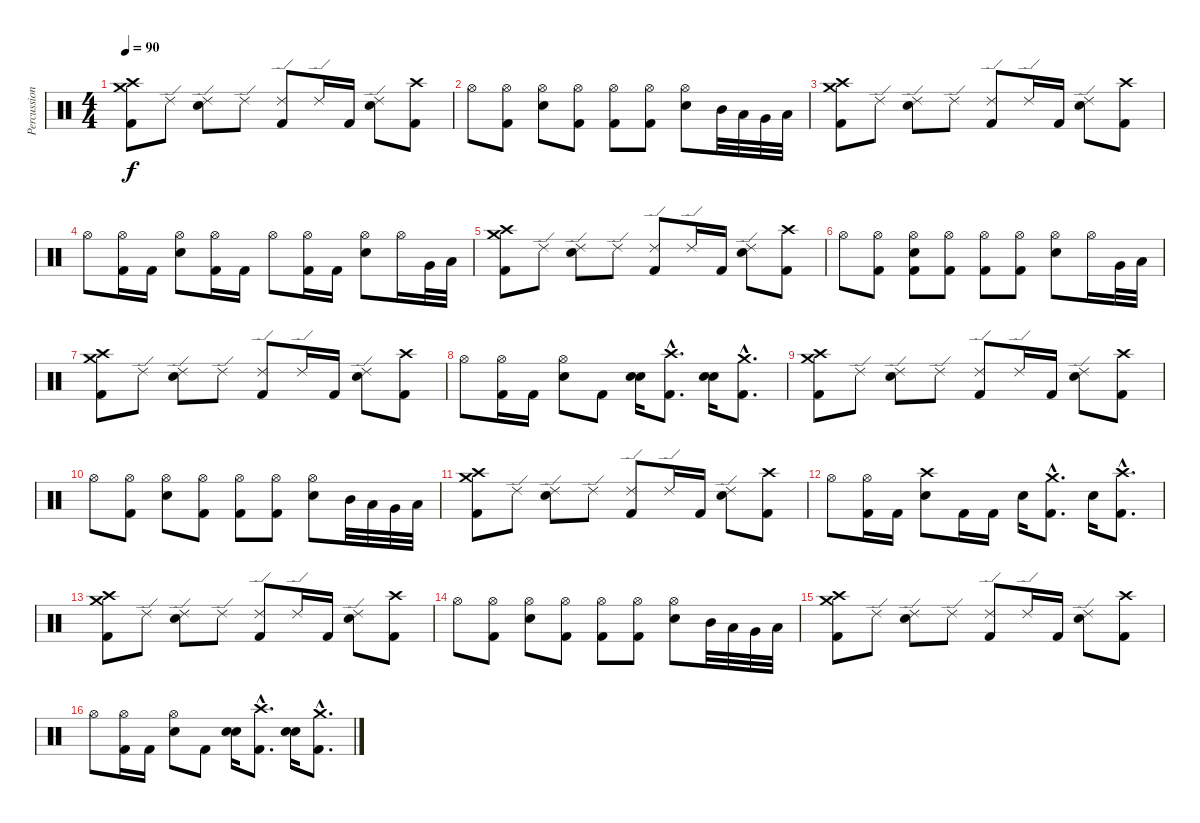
\track ("Percussions" "Percussion") {instrument percussion}
\staff {score}
\articulation defaults
\ts (4 4)
\tempo 90
\clef neutral
\ks c
("Crash high (hit)" "Crash medium (hit)" "Kick (hit) 2").8{dy f} "Ride (edge) 2".8 ("Ride (edge) 2" "Snare (hit) 2").8 "Ride (edge) 2".8 ("Ride (edge) 2" "Kick (hit) 2").8 "Ride (edge) 2".16 "Kick (hit) 2".16 ("Ride (edge) 2" "Snare (hit) 2").8 ("Crash high (hit)" "Kick (hit) 2").8 |
"Hi-Hat (open)".8 ("Hi-Hat (open)" "Kick (hit) 2").8 ("Hi-Hat (open)" "Snare (hit) 2").8 ("Hi-Hat (open)" "Kick (hit) 2").8 ("Hi-Hat (open)" "Kick (hit) 2").8 ("Hi-Hat (open)" "Kick (hit) 2").8 ("Hi-Hat (open)" "Snare (hit) 2").8 "Mid Tom (hit)".32 "Low Tom (hit)".32 "Very Low Tom (hit)".32 "Low Floor Tom (hit)".32 |
("Crash high (hit)" "Crash medium (hit)" "Kick (hit) 2").8 "Ride (edge) 2".8 ("Ride (edge) 2" "Snare (hit) 2").8 "Ride (edge) 2".8 ("Ride (edge) 2" "Kick (hit) 2").8 "Ride (edge) 2".16 "Kick (hit) 2".16 ("Ride (edge) 2" "Snare (hit) 2").8 ("Crash high (hit)" "Kick (hit) 2").8 |
"Hi-Hat (open)".8 ("Hi-Hat (open)" "Kick (hit) 2").16 "Kick (hit) 2".16 ("Hi-Hat (open)" "Snare (hit) 2").8 ("Hi-Hat (open)" "Kick (hit) 2").16 "Kick (hit) 2".16 "Hi-Hat (open)".8 ("Hi-Hat (open)" "Kick (hit) 2").16 "Kick (hit) 2".16 ("Hi-Hat (open)" "Snare (hit) 2").8 "Hi-Hat (open)".16 "Very Low Tom (hit)".32 "Low Floor Tom (hit)".32 |
("Crash high (hit)" "Crash medium (hit)" "Kick (hit) 2").8 "Ride (edge) 2".8 ("Ride (edge) 2" "Snare (hit) 2").8 "Ride (edge) 2".8 ("Ride (edge) 2" "Kick (hit) 2").8 "Ride (edge) 2".16 "Kick (hit) 2".16 ("Ride (edge) 2" "Snare (hit) 2").8 ("Crash high (hit)" "Kick (hit) 2").8 |
"Hi-Hat (open)".8 ("Hi-Hat (open)" "Kick (hit) 2").8 ("Hi-Hat (open)" "Snare (hit) 2" "Kick (hit) 2").8 ("Hi-Hat (open)" "Kick (hit) 2").8 ("Hi-Hat (open)" "Kick (hit) 2").8 ("Hi-Hat (open)" "Kick (hit) 2").8 ("Hi-Hat (open)" "Snare (hit) 2").8 "Hi-Hat (open)".16 "Very Low Tom (hit)".32 "Low Floor Tom (hit)".32 |
("Crash high (hit)" "Crash medium (hit)" "Kick (hit) 2").8 "Ride (edge) 2".8 ("Ride (edge) 2" "Snare (hit) 2").8 "Ride (edge) 2".8 ("Ride (edge) 2" "Kick (hit) 2").8 "Ride (edge) 2".16 "Kick (hit) 2".16 ("Ride (edge) 2" "Snare (hit) 2").8 ("Crash high (hit)" "Kick (hit) 2").8 |
"Hi-Hat (open)".8 ("Hi-Hat (open)" "Kick (hit) 2").16 "Kick (hit) 2".16 ("Hi-Hat (open)" "Snare (hit) 2").8 "Kick (hit) 2".8 ("Snare (hit) 2" "Snare (hit) 2").16{bd 480} ("Crash high (hit)"{hac} "Kick (hit) 2"{hac}).8{d} ("Snare (hit) 2" "Snare (hit) 2").16{bd 480} ("Crash medium (hit)"{hac} "Kick (hit) 2"{hac}).8{d} |
("Crash high (hit)" "Crash medium (hit)" "Kick (hit) 2").8 "Ride (edge) 2".8 ("Ride (edge) 2" "Snare (hit) 2").8 "Ride (edge) 2".8 ("Ride (edge) 2" "Kick (hit) 2").8 "Ride (edge) 2".16 "Kick (hit) 2".16 ("Ride (edge) 2" "Snare (hit) 2").8 ("Crash high (hit)" "Kick (hit) 2").8 |
"Hi-Hat (open)".8 ("Hi-Hat (open)" "Kick (hit) 2").8 ("Hi-Hat (open)" "Snare (hit) 2").8 ("Hi-Hat (open)" "Kick (hit) 2").8 ("Hi-Hat (open)" "Kick (hit) 2").8 ("Hi-Hat (open)" "Kick (hit) 2").8 ("Hi-Hat (open)" "Snare (hit) 2").8 "Mid Tom (hit)".32 "Low Tom (hit)".32 "Very Low Tom (hit)".32 "Low Floor Tom (hit)".32 |
("Crash high (hit)" "Crash medium (hit)" "Kick (hit) 2").8 "Ride (edge) 2".8 ("Ride (edge) 2" "Snare (hit) 2").8 "Ride (edge) 2".8 ("Ride (edge) 2" "Kick (hit) 2").8 "Ride (edge) 2".16 "Kick (hit) 2".16 ("Ride (edge) 2" "Snare (hit) 2").8 ("Crash high (hit)" "Kick (hit) 2").8 |
"Hi-Hat (open)".8 ("Hi-Hat (open)" "Kick (hit) 2").16 "Kick (hit) 2".16 ("Crash high (hit)" "Snare (hit) 2").8 "Kick (hit) 2".16 "Kick (hit) 2".16 "Snare (hit) 2".16 ("Crash medium (hit)"{hac} "Kick (hit) 2"{hac}).8{d} "Snare (hit) 2".16 ("Crash high (hit)"{hac} "Kick (hit) 2"{hac}).8{d} |
("Crash high (hit)" "Crash medium (hit)" "Kick (hit) 2").8 "Ride (edge) 2".8 ("Ride (edge) 2" "Snare (hit) 2").8 "Ride (edge) 2".8 ("Ride (edge) 2" "Kick (hit) 2").8 "Ride (edge) 2".16 "Kick (hit) 2".16 ("Ride (edge) 2" "Snare (hit) 2").8 ("Crash high (hit)" "Kick (hit) 2").8 |
"Hi-Hat (open)".8 ("Hi-Hat (open)" "Kick (hit) 2").8 ("Hi-Hat (open)" "Snare (hit) 2").8 ("Hi-Hat (open)" "Kick (hit) 2").8 ("Hi-Hat (open)" "Kick (hit) 2").8 ("Hi-Hat (open)" "Kick (hit) 2").8 ("Hi-Hat (open)" "Snare (hit) 2").8 "Mid Tom (hit)".32 "Low Tom (hit)".32 "Very Low Tom (hit)".32 "Low Floor Tom (hit)".32 |
("Crash high (hit)" "Crash medium (hit)" "Kick (hit) 2").8 "Ride (edge) 2".8 ("Ride (edge) 2" "Snare (hit) 2").8 "Ride (edge) 2".8 ("Ride (edge) 2" "Kick (hit) 2").8 "Ride (edge) 2".16 "Kick (hit) 2".16 ("Ride (edge) 2" "Snare (hit) 2").8 ("Crash high (hit)" "Kick (hit) 2").8 |
"Hi-Hat (open)".8 ("Hi-Hat (open)" "Kick (hit) 2").16 "Kick (hit) 2".16 ("Hi-Hat (open)" "Snare (hit) 2").8 "Kick (hit) 2".8 ("Snare (hit) 2" "Snare (hit) 2").16{bd 480} ("Crash high (hit)"{hac} "Kick (hit) 2"{hac}).8{d} ("Snare (hit) 2" "Snare (hit) 2").16{bd 480} ("Crash medium (hit)"{hac} "Kick (hit) 2"{hac}).8{d}
